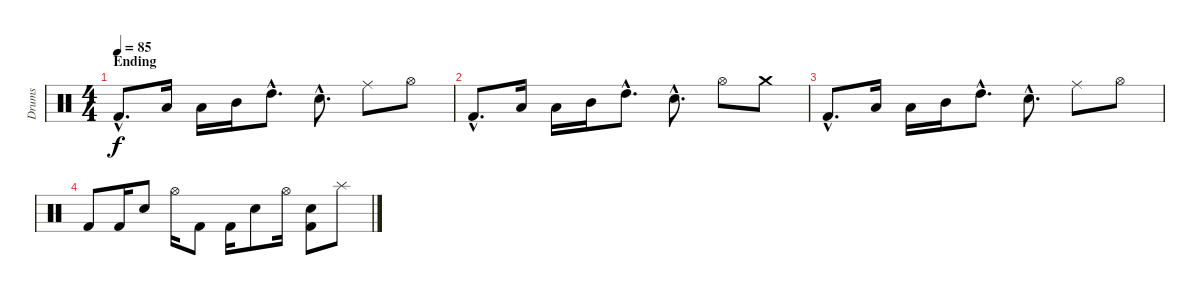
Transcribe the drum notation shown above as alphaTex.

\track ("Drums" "Drums") {instrument percussion}
\staff {score}
\articulation defaults
\ts (4 4)
\section ("" "Ending")
\tempo 85
\clef neutral
\ks c "Kick (hit) 2"{hac}.8{d dy f} "Low Floor Tom (hit)".16 "Low Tom (hit)".16 "Mid Tom (hit)".16 "High Tom (hit)"{hac}.8{d} "Snare (hit) 2"{hac}.8{d} "Ride (middle)".8 "Hi-Hat (open)".8
|
"Kick (hit) 2"{hac}.8{d} "Low Floor Tom (hit)".16 "Low Tom (hit)".16 "Mid Tom (hit)".16 "High Tom (hit)"{hac}.8{d} "Snare (hit) 2"{hac}.8{d} "Hi-Hat (open)".8 "Crash medium (hit)".8 |
"Kick (hit) 2"{hac}.8{d} "Low Floor Tom (hit)".16 "Low Tom (hit)".16 "Mid Tom (hit)".16 "High Tom (hit)"{hac}.8{d} "Snare (hit) 2"{hac}.8{d} "Ride (middle)".8 "Hi-Hat (open)".8 |
"Kick (hit) 2".8 "Kick (hit) 2".16 "Snare (hit) 2".8 "Hi-Hat (open)".16 "Kick (hit) 2".8 "Kick (hit) 2".16 "Snare (hit) 2".8 "Hi-Hat (open)".16 ("Kick (hit) 2" "Snare (hit) 2").8 "Splash (hit)".8
